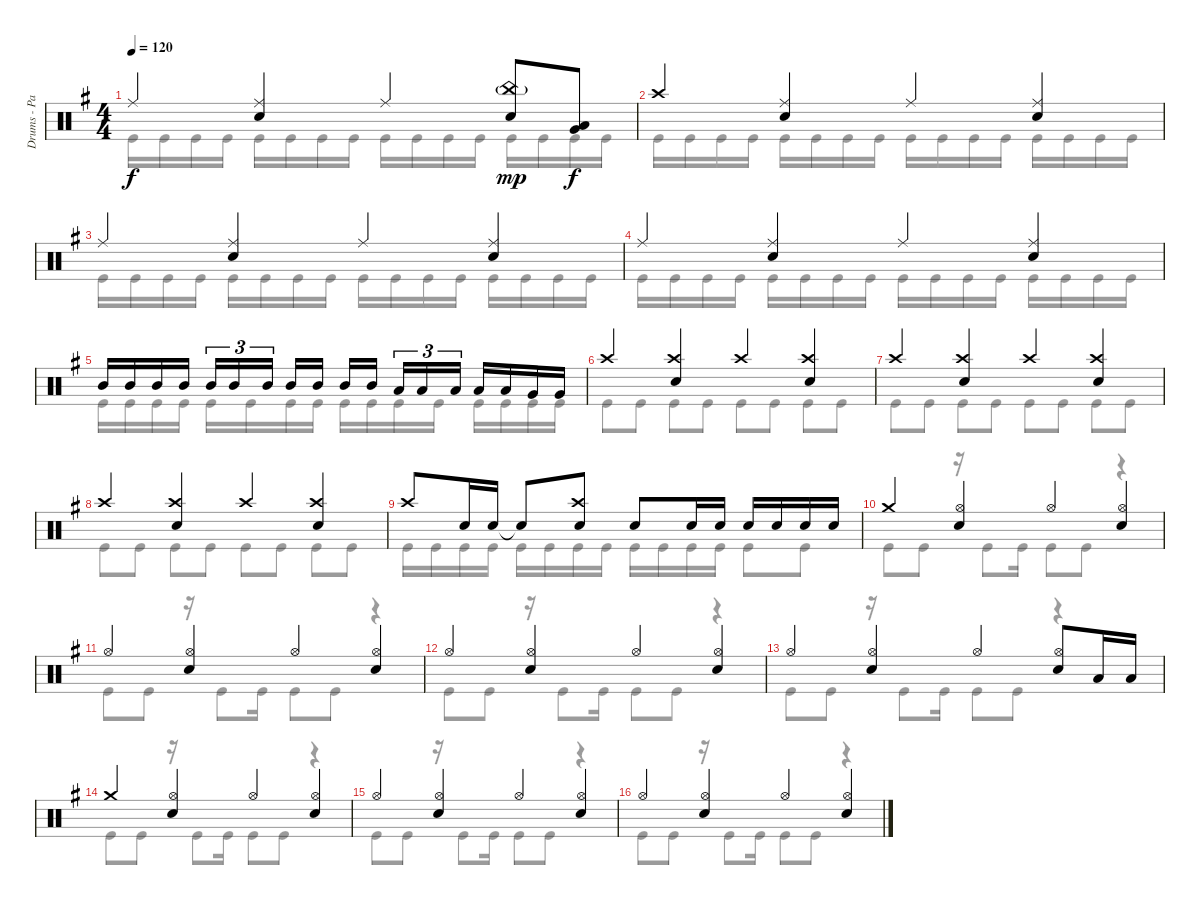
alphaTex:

\track ("Drums - Patrick Johansson" "Drums - Pa") {instrument percussion}
\staff {score}
\articulation defaults
\voice
\ts (4 4)
\tempo 120
\clef neutral
\ks eminor "Ride (middle)".4{dy f}
("Ride (middle)" "Snare (hit) 2").4 "Ride (middle)".4 ("China (hit)"{g} "Snare (hit) 2").8{dy mp} ("Low Tom (hit)" "Very Low Tom (hit)").8{dy f} |
"Crash high (hit)".4 ("Ride (middle)" "Snare (hit) 2").4 "Ride (middle)".4 ("Ride (middle)" "Snare (hit) 2").4 |
"Ride (middle)".4 ("Ride (middle)" "Snare (hit) 2").4 "Ride (middle)".4 ("Ride (middle)" "Snare (hit) 2").4 |
"Ride (middle)".4 ("Ride (middle)" "Snare (hit) 2").4 "Ride (middle)".4 ("Ride (middle)" "Snare (hit) 2").4 |
"Mid Tom (hit)".16 "Mid Tom (hit)".16 "Mid Tom (hit)".16 "Mid Tom (hit)".16 "Mid Tom (hit)".16{tu (3 2)} "Mid Tom (hit)".16{tu (3 2)} "Mid Tom (hit)".16{tu (3 2) beam splitsecondary} "Mid Tom (hit)".16 "Mid Tom (hit)".16 "Mid Tom (hit)".16 "Mid Tom (hit)".16{beam splitsecondary} "Low Tom (hit)".16{tu (3 2)} "Low Tom (hit)".16{tu (3 2)} "Low Tom (hit)".16{tu (3 2)} "Low Tom (hit)".16 "Low Tom (hit)".16 "Very Low Tom (hit)".16 "Very Low Tom (hit)".16 |
"Crash high (hit)".4 ("Crash high (hit)" "Snare (hit) 2").4 "Crash high (hit)".4 ("Crash high (hit)" "Snare (hit) 2").4 |
"Crash high (hit)".4 ("Crash high (hit)" "Snare (hit) 2").4 "Crash high (hit)".4 ("Crash high (hit)" "Snare (hit) 2").4 |
"Crash high (hit)".4 ("Crash high (hit)" "Snare (hit) 2").4 "Crash high (hit)".4 ("Crash high (hit)" "Snare (hit) 2").4 |
"Crash high (hit)".8 "Snare (hit) 2".16 "Snare (hit) 2".16 "Snare (hit) 2"{t}.8 ("Crash high (hit)" "Snare (hit) 2").8 "Snare (hit) 2".8 "Snare (hit) 2".16 "Snare (hit) 2".16 "Snare (hit) 2".16 "Snare (hit) 2".16 "Snare (hit) 2".16 "Snare (hit) 2".16 |
"Crash medium (hit)".4 ("Hi-Hat (open)" "Snare (hit) 2").4 "Hi-Hat (open)".4 ("Hi-Hat (open)" "Snare (hit) 2").4 |
"Hi-Hat (open)".4 ("Hi-Hat (open)" "Snare (hit) 2").4 "Hi-Hat (open)".4 ("Hi-Hat (open)" "Snare (hit) 2").4 |
"Hi-Hat (open)".4 ("Hi-Hat (open)" "Snare (hit) 2").4 "Hi-Hat (open)".4 ("Hi-Hat (open)" "Snare (hit) 2").4 |
"Hi-Hat (open)".4 ("Hi-Hat (open)" "Snare (hit) 2").4 "Hi-Hat (open)".4 ("Hi-Hat (open)" "Snare (hit) 2").8 "Low Tom (hit)".16 "Low Tom (hit)".16 |
"Crash medium (hit)".4 ("Hi-Hat (open)" "Snare (hit) 2").4 "Hi-Hat (open)".4 ("Hi-Hat (open)" "Snare (hit) 2").4 |
"Hi-Hat (open)".4 ("Hi-Hat (open)" "Snare (hit) 2").4 "Hi-Hat (open)".4 ("Hi-Hat (open)" "Snare (hit) 2").4 |
"Hi-Hat (open)".4 ("Hi-Hat (open)" "Snare (hit) 2").4 "Hi-Hat (open)".4 ("Hi-Hat (open)" "Snare (hit) 2").4
\voice
\clef neutral
\ottava regular
\simile none
\ks eminor "Kick (hit)".16{dy f} "Kick (hit)".16 "Kick (hit)".16 "Kick (hit)".16 "Kick (hit)".16 "Kick (hit)".16 "Kick (hit)".16 "Kick (hit)".16 "Kick (hit)".16 "Kick (hit)".16 "Kick (hit)".16 "Kick (hit)".16 "Kick (hit)".16 "Kick (hit)".16 "Kick (hit)".16 "Kick (hit)".16
|
"Kick (hit)".16 "Kick (hit)".16 "Kick (hit)".16 "Kick (hit)".16 "Kick (hit)".16 "Kick (hit)".16 "Kick (hit)".16 "Kick (hit)".16 "Kick (hit)".16 "Kick (hit)".16 "Kick (hit)".16 "Kick (hit)".16 "Kick (hit)".16 "Kick (hit)".16 "Kick (hit)".16 "Kick (hit)".16 |
"Kick (hit)".16 "Kick (hit)".16 "Kick (hit)".16 "Kick (hit)".16 "Kick (hit)".16 "Kick (hit)".16 "Kick (hit)".16 "Kick (hit)".16 "Kick (hit)".16 "Kick (hit)".16 "Kick (hit)".16 "Kick (hit)".16 "Kick (hit)".16 "Kick (hit)".16 "Kick (hit)".16 "Kick (hit)".16 |
"Kick (hit)".16 "Kick (hit)".16 "Kick (hit)".16 "Kick (hit)".16 "Kick (hit)".16 "Kick (hit)".16 "Kick (hit)".16 "Kick (hit)".16 "Kick (hit)".16 "Kick (hit)".16 "Kick (hit)".16 "Kick (hit)".16 "Kick (hit)".16 "Kick (hit)".16 "Kick (hit)".16 "Kick (hit)".16 |
"Kick (hit)".16 "Kick (hit)".16 "Kick (hit)".16 "Kick (hit)".16 "Kick (hit)".16 "Kick (hit)".16 "Kick (hit)".16 "Kick (hit)".16 "Kick (hit)".16 "Kick (hit)".16 "Kick (hit)".16 "Kick (hit)".16 "Kick (hit)".16 "Kick (hit)".16 "Kick (hit)".16 "Kick (hit)".16 |
"Kick (hit)".8 "Kick (hit)".8 "Kick (hit)".8 "Kick (hit)".8 "Kick (hit)".8 "Kick (hit)".8 "Kick (hit)".8 "Kick (hit)".8 |
"Kick (hit)".8 "Kick (hit)".8 "Kick (hit)".8 "Kick (hit)".8 "Kick (hit)".8 "Kick (hit)".8 "Kick (hit)".8 "Kick (hit)".8 |
"Kick (hit)".8 "Kick (hit)".8 "Kick (hit)".8 "Kick (hit)".8 "Kick (hit)".8 "Kick (hit)".8 "Kick (hit)".8 "Kick (hit)".8 |
"Kick (hit)".16 "Kick (hit)".16 "Kick (hit)".16 "Kick (hit)".16 "Kick (hit)".16 "Kick (hit)".16 "Kick (hit)".16 "Kick (hit)".16 "Kick (hit)".16 "Kick (hit)".16 "Kick (hit)".16 "Kick (hit)".16 "Kick (hit)".8 "Kick (hit)".8 |
"Kick (hit)".8 "Kick (hit)".8 r.16 "Kick (hit)".8 "Kick (hit)".16 "Kick (hit)".8 "Kick (hit)".8 r.4 |
"Kick (hit)".8 "Kick (hit)".8 r.16 "Kick (hit)".8 "Kick (hit)".16 "Kick (hit)".8 "Kick (hit)".8 r.4 |
"Kick (hit)".8 "Kick (hit)".8 r.16 "Kick (hit)".8 "Kick (hit)".16 "Kick (hit)".8 "Kick (hit)".8 r.4 |
"Kick (hit)".8 "Kick (hit)".8 r.16 "Kick (hit)".8 "Kick (hit)".16 "Kick (hit)".8 "Kick (hit)".8 r.4 |
"Kick (hit)".8 "Kick (hit)".8 r.16 "Kick (hit)".8 "Kick (hit)".16 "Kick (hit)".8 "Kick (hit)".8 r.4 |
"Kick (hit)".8 "Kick (hit)".8 r.16 "Kick (hit)".8 "Kick (hit)".16 "Kick (hit)".8 "Kick (hit)".8 r.4 |
"Kick (hit)".8 "Kick (hit)".8 r.16 "Kick (hit)".8 "Kick (hit)".16 "Kick (hit)".8 "Kick (hit)".8 r.4
